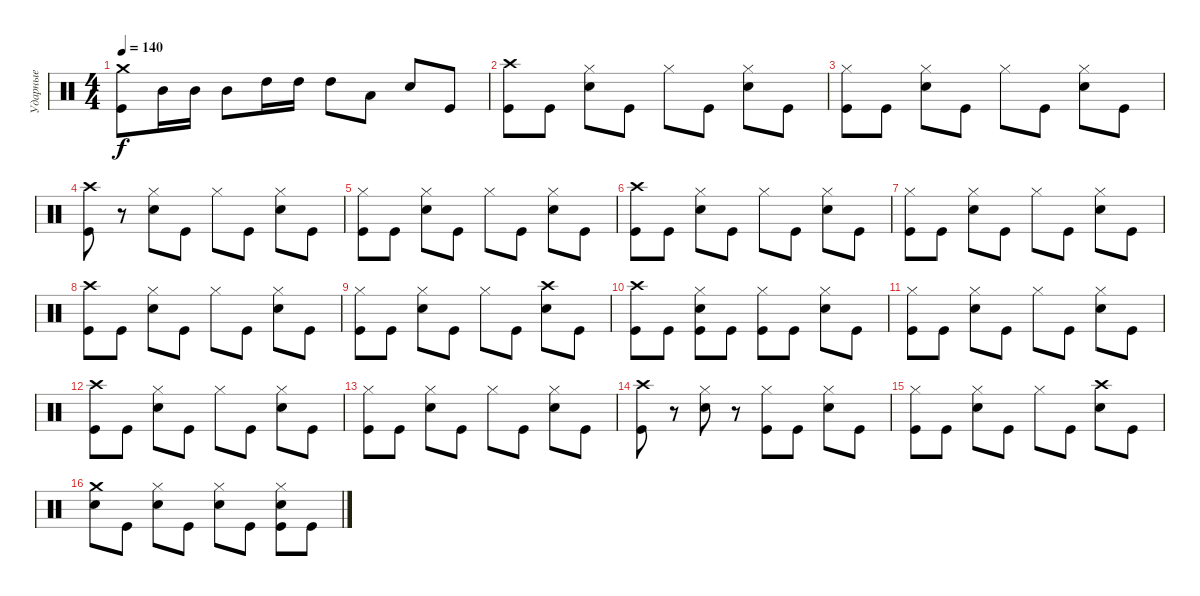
\track ("Ударные" "Ударные") {instrument percussion}
\staff {score}
\articulation defaults
\ts (4 4)
\tempo 140
\clef neutral
\ks c
("Crash medium (hit)"{t} "Kick (hit)").8{dy f} "Mid Tom (hit)".16 "Mid Tom (hit)".16 "Mid Tom (hit)".8 "High Tom (hit)".16 "High Tom (hit)".16 "High Tom (hit)".8 "Low Tom (hit)".8 "Electric Snare (hit)".8 "Kick (hit)".8 |
("Crash high (hit)" "Kick (hit)").8 "Kick (hit)".8 ("Hi-Hat (closed)" "Electric Snare (hit)").8 "Kick (hit)".8 "Hi-Hat (closed)".8 "Kick (hit)".8 ("Hi-Hat (closed)" "Electric Snare (hit)").8 "Kick (hit)".8 |
("Hi-Hat (closed)" "Kick (hit)").8 "Kick (hit)".8 ("Hi-Hat (closed)" "Electric Snare (hit)").8 "Kick (hit)".8 "Hi-Hat (closed)".8 "Kick (hit)".8 ("Hi-Hat (closed)" "Electric Snare (hit)").8 "Kick (hit)".8 |
("Crash high (hit)" "Kick (hit)").8 r.8 ("Hi-Hat (closed)" "Electric Snare (hit)").8 "Kick (hit)".8 "Hi-Hat (closed)".8 "Kick (hit)".8 ("Hi-Hat (closed)" "Electric Snare (hit)").8 "Kick (hit)".8 |
("Hi-Hat (closed)" "Kick (hit)").8 "Kick (hit)".8 ("Hi-Hat (closed)" "Electric Snare (hit)").8 "Kick (hit)".8 "Hi-Hat (closed)".8 "Kick (hit)".8 ("Hi-Hat (closed)" "Electric Snare (hit)").8 "Kick (hit)".8 |
("Crash high (hit)" "Kick (hit)").8 "Kick (hit)".8 ("Hi-Hat (closed)" "Electric Snare (hit)").8 "Kick (hit)".8 "Hi-Hat (closed)".8 "Kick (hit)".8 ("Hi-Hat (closed)" "Electric Snare (hit)").8 "Kick (hit)".8 |
("Hi-Hat (closed)" "Kick (hit)").8 "Kick (hit)".8 ("Hi-Hat (closed)" "Electric Snare (hit)").8 "Kick (hit)".8 "Hi-Hat (closed)".8 "Kick (hit)".8 ("Hi-Hat (closed)" "Electric Snare (hit)").8 "Kick (hit)".8 |
("Crash high (hit)" "Kick (hit)").8 "Kick (hit)".8 ("Hi-Hat (closed)" "Electric Snare (hit)").8 "Kick (hit)".8 "Hi-Hat (closed)".8 "Kick (hit)".8 ("Hi-Hat (closed)" "Electric Snare (hit)").8 "Kick (hit)".8 |
("Hi-Hat (closed)" "Kick (hit)").8 "Kick (hit)".8 ("Hi-Hat (closed)" "Electric Snare (hit)").8 "Kick (hit)".8 "Hi-Hat (closed)".8 "Kick (hit)".8 ("Crash high (hit)" "Electric Snare (hit)").8 "Kick (hit)".8 |
("Crash high (hit)" "Kick (hit)").8 "Kick (hit)".8 ("Hi-Hat (closed)" "Electric Snare (hit)" "Kick (hit)").8 "Kick (hit)".8 ("Hi-Hat (closed)" "Kick (hit)").8 "Kick (hit)".8 ("Hi-Hat (closed)" "Electric Snare (hit)").8 "Kick (hit)".8 |
("Hi-Hat (closed)" "Kick (hit)").8 "Kick (hit)".8 ("Hi-Hat (closed)" "Electric Snare (hit)").8 "Kick (hit)".8 "Hi-Hat (closed)".8 "Kick (hit)".8 ("Hi-Hat (closed)" "Electric Snare (hit)").8 "Kick (hit)".8 |
("Crash high (hit)" "Kick (hit)").8 "Kick (hit)".8 ("Hi-Hat (closed)" "Electric Snare (hit)").8 "Kick (hit)".8 "Hi-Hat (closed)".8 "Kick (hit)".8 ("Hi-Hat (closed)" "Electric Snare (hit)").8 "Kick (hit)".8 |
("Hi-Hat (closed)" "Kick (hit)").8 "Kick (hit)".8 ("Hi-Hat (closed)" "Electric Snare (hit)").8 "Kick (hit)".8 "Hi-Hat (closed)".8 "Kick (hit)".8 ("Hi-Hat (closed)" "Electric Snare (hit)").8 "Kick (hit)".8 |
("Crash high (hit)" "Kick (hit)").8 r.8 ("Hi-Hat (closed)" "Electric Snare (hit)").8 r.8 ("Hi-Hat (closed)" "Kick (hit)").8 "Kick (hit)".8 ("Hi-Hat (closed)" "Electric Snare (hit)").8 "Kick (hit)".8 |
("Hi-Hat (closed)" "Kick (hit)").8 "Kick (hit)".8 ("Hi-Hat (closed)" "Electric Snare (hit)").8 "Kick (hit)".8 "Hi-Hat (closed)".8 "Kick (hit)".8 ("Crash high (hit)" "Electric Snare (hit)").8 "Kick (hit)".8 |
("Crash medium (hit)" "Electric Snare (hit)").8 "Kick (hit)".8 ("Hi-Hat (closed)" "Electric Snare (hit)").8 "Kick (hit)".8 ("Hi-Hat (closed)" "Electric Snare (hit)").8 "Kick (hit)".8 ("Hi-Hat (closed)" "Electric Snare (hit)" "Kick (hit)").8 "Kick (hit)".8
